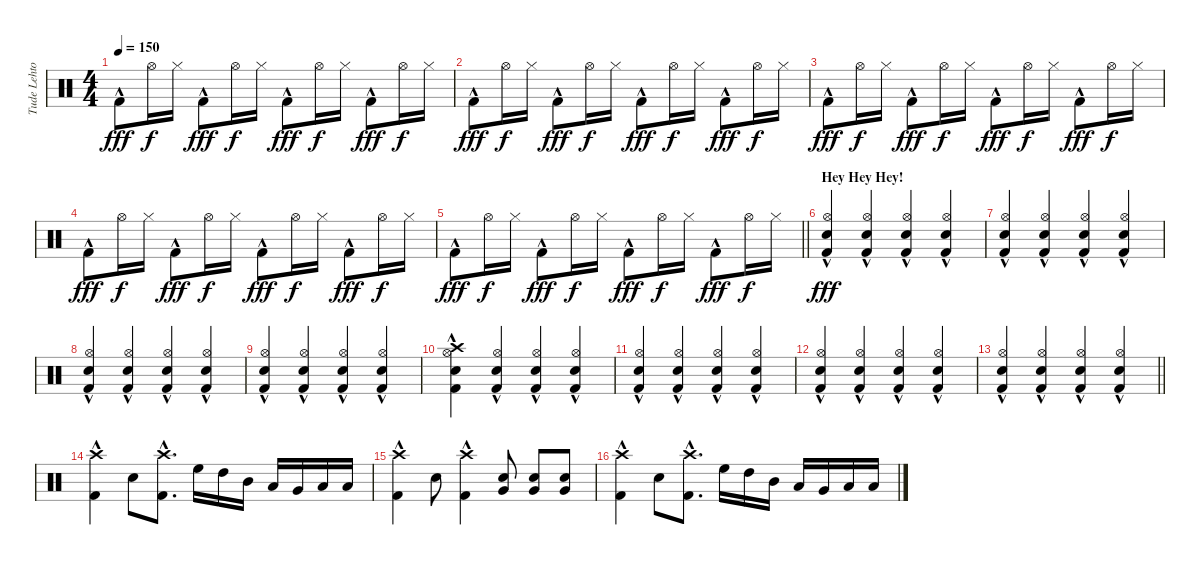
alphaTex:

\track ("Tude Lehtonen" "Tude Lehto") {instrument percussion}
\staff {score}
\articulation defaults
\ts (4 4)
\tempo 150
\clef neutral
\ks c "Kick (hit) 2"{hac}.8{dy fff} "Hi-Hat (open)".16{dy f} "Hi-Hat (closed)".16 "Kick (hit) 2"{hac}.8{dy fff} "Hi-Hat (open)".16{dy f} "Hi-Hat (closed)".16 "Kick (hit) 2"{hac}.8{dy fff} "Hi-Hat (open)".16{dy f} "Hi-Hat (closed)".16 "Kick (hit) 2"{hac}.8{dy fff} "Hi-Hat (open)".16{dy f} "Hi-Hat (closed)".16
|
"Kick (hit) 2"{hac}.8{dy fff} "Hi-Hat (open)".16{dy f} "Hi-Hat (closed)".16 "Kick (hit) 2"{hac}.8{dy fff} "Hi-Hat (open)".16{dy f} "Hi-Hat (closed)".16 "Kick (hit) 2"{hac}.8{dy fff} "Hi-Hat (open)".16{dy f} "Hi-Hat (closed)".16 "Kick (hit) 2"{hac}.8{dy fff} "Hi-Hat (open)".16{dy f} "Hi-Hat (closed)".16 |
"Kick (hit) 2"{hac}.8{dy fff} "Hi-Hat (open)".16{dy f} "Hi-Hat (closed)".16 "Kick (hit) 2"{hac}.8{dy fff} "Hi-Hat (open)".16{dy f} "Hi-Hat (closed)".16 "Kick (hit) 2"{hac}.8{dy fff} "Hi-Hat (open)".16{dy f} "Hi-Hat (closed)".16 "Kick (hit) 2"{hac}.8{dy fff} "Hi-Hat (open)".16{dy f} "Hi-Hat (closed)".16 |
"Kick (hit) 2"{hac}.8{dy fff} "Hi-Hat (open)".16{dy f} "Hi-Hat (closed)".16 "Kick (hit) 2"{hac}.8{dy fff} "Hi-Hat (open)".16{dy f} "Hi-Hat (closed)".16 "Kick (hit) 2"{hac}.8{dy fff} "Hi-Hat (open)".16{dy f} "Hi-Hat (closed)".16 "Kick (hit) 2"{hac}.8{dy fff} "Hi-Hat (open)".16{dy f} "Hi-Hat (closed)".16 |
\barLineRight lightlight "Kick (hit) 2"{hac}.8{dy fff} "Hi-Hat (open)".16{dy f} "Hi-Hat (closed)".16 "Kick (hit) 2"{hac}.8{dy fff} "Hi-Hat (open)".16{dy f} "Hi-Hat (closed)".16 "Kick (hit) 2"{hac}.8{dy fff} "Hi-Hat (open)".16{dy f} "Hi-Hat (closed)".16 "Kick (hit) 2"{hac}.8{dy fff} "Hi-Hat (open)".16{dy f} "Hi-Hat (closed)".16
|
\section ("" "Hey Hey Hey!")
("Hi-Hat (open)" "Snare (hit) 2"{hac} "Kick (hit) 2"{hac}).4{dy fff} ("Hi-Hat (open)" "Snare (hit) 2"{hac} "Kick (hit) 2"{hac}).4 ("Hi-Hat (open)" "Snare (hit) 2"{hac} "Kick (hit) 2"{hac}).4 ("Hi-Hat (open)" "Snare (hit) 2"{hac} "Kick (hit) 2"{hac}).4 |
("Hi-Hat (open)" "Snare (hit) 2"{hac} "Kick (hit) 2"{hac}).4 ("Hi-Hat (open)" "Snare (hit) 2"{hac} "Kick (hit) 2"{hac}).4 ("Hi-Hat (open)" "Snare (hit) 2"{hac} "Kick (hit) 2"{hac}).4 ("Hi-Hat (open)" "Snare (hit) 2"{hac} "Kick (hit) 2"{hac}).4 |
("Hi-Hat (open)" "Snare (hit) 2"{hac} "Kick (hit) 2"{hac}).4 ("Hi-Hat (open)" "Snare (hit) 2"{hac} "Kick (hit) 2"{hac}).4 ("Hi-Hat (open)" "Snare (hit) 2"{hac} "Kick (hit) 2"{hac}).4 ("Hi-Hat (open)" "Snare (hit) 2"{hac} "Kick (hit) 2"{hac}).4 |
("Hi-Hat (open)" "Snare (hit) 2"{hac} "Kick (hit) 2"{hac}).4 ("Hi-Hat (open)" "Snare (hit) 2"{hac} "Kick (hit) 2"{hac}).4 ("Hi-Hat (open)" "Snare (hit) 2"{hac} "Kick (hit) 2"{hac}).4 ("Hi-Hat (open)" "Snare (hit) 2"{hac} "Kick (hit) 2"{hac}).4 |
("Crash high (hit)" "Hi-Hat (open)" "Snare (hit) 2"{hac} "Kick (hit) 2"{hac}).4 ("Hi-Hat (open)" "Snare (hit) 2"{hac} "Kick (hit) 2"{hac}).4 ("Hi-Hat (open)" "Snare (hit) 2"{hac} "Kick (hit) 2"{hac}).4 ("Hi-Hat (open)" "Snare (hit) 2"{hac} "Kick (hit) 2"{hac}).4 |
("Hi-Hat (open)" "Snare (hit) 2"{hac} "Kick (hit) 2"{hac}).4 ("Hi-Hat (open)" "Snare (hit) 2"{hac} "Kick (hit) 2"{hac}).4 ("Hi-Hat (open)" "Snare (hit) 2"{hac} "Kick (hit) 2"{hac}).4 ("Hi-Hat (open)" "Snare (hit) 2"{hac} "Kick (hit) 2"{hac}).4 |
("Hi-Hat (open)" "Snare (hit) 2"{hac} "Kick (hit) 2"{hac}).4 ("Hi-Hat (open)" "Snare (hit) 2"{hac} "Kick (hit) 2"{hac}).4 ("Hi-Hat (open)" "Snare (hit) 2"{hac} "Kick (hit) 2"{hac}).4 ("Hi-Hat (open)" "Snare (hit) 2"{hac} "Kick (hit) 2"{hac}).4 |
\barLineRight lightlight
("Hi-Hat (open)" "Snare (hit) 2"{hac} "Kick (hit) 2"{hac}).4 ("Hi-Hat (open)" "Snare (hit) 2"{hac} "Kick (hit) 2"{hac}).4 ("Hi-Hat (open)" "Snare (hit) 2"{hac} "Kick (hit) 2"{hac}).4 ("Hi-Hat (open)" "Snare (hit) 2"{hac} "Kick (hit) 2"{hac}).4 |
\section ("" "")
("Crash high (hit)"{hac} "Kick (hit) 2"{hac}).4 "Electric Snare (hit)".8 ("Crash high (hit)"{hac} "Kick (hit) 2"{hac}).8{d} "High Floor Tom (hit)".16 "High Tom (hit)".16 "Mid Tom (hit)".16 "Low Tom (hit)".16 "Very Low Tom (hit)".16 "Low Floor Tom (hit)".16 "Low Floor Tom (hit)".16 |
("Crash high (hit)"{hac} "Kick (hit) 2"{hac}).4 "Electric Snare (hit)".8 ("Crash high (hit)"{hac} "Kick (hit) 2"{hac}).4 ("Electric Snare (hit)" "Very Low Tom (hit)").8 ("Electric Snare (hit)" "Very Low Tom (hit)").8 ("Electric Snare (hit)" "Very Low Tom (hit)").8 |
("Crash high (hit)"{hac} "Kick (hit) 2"{hac}).4 "Electric Snare (hit)".8 ("Crash high (hit)"{hac} "Kick (hit) 2"{hac}).8{d} "High Floor Tom (hit)".16 "High Tom (hit)".16 "Mid Tom (hit)".16 "Low Tom (hit)".16 "Very Low Tom (hit)".16 "Low Floor Tom (hit)".16 "Low Floor Tom (hit)".16
